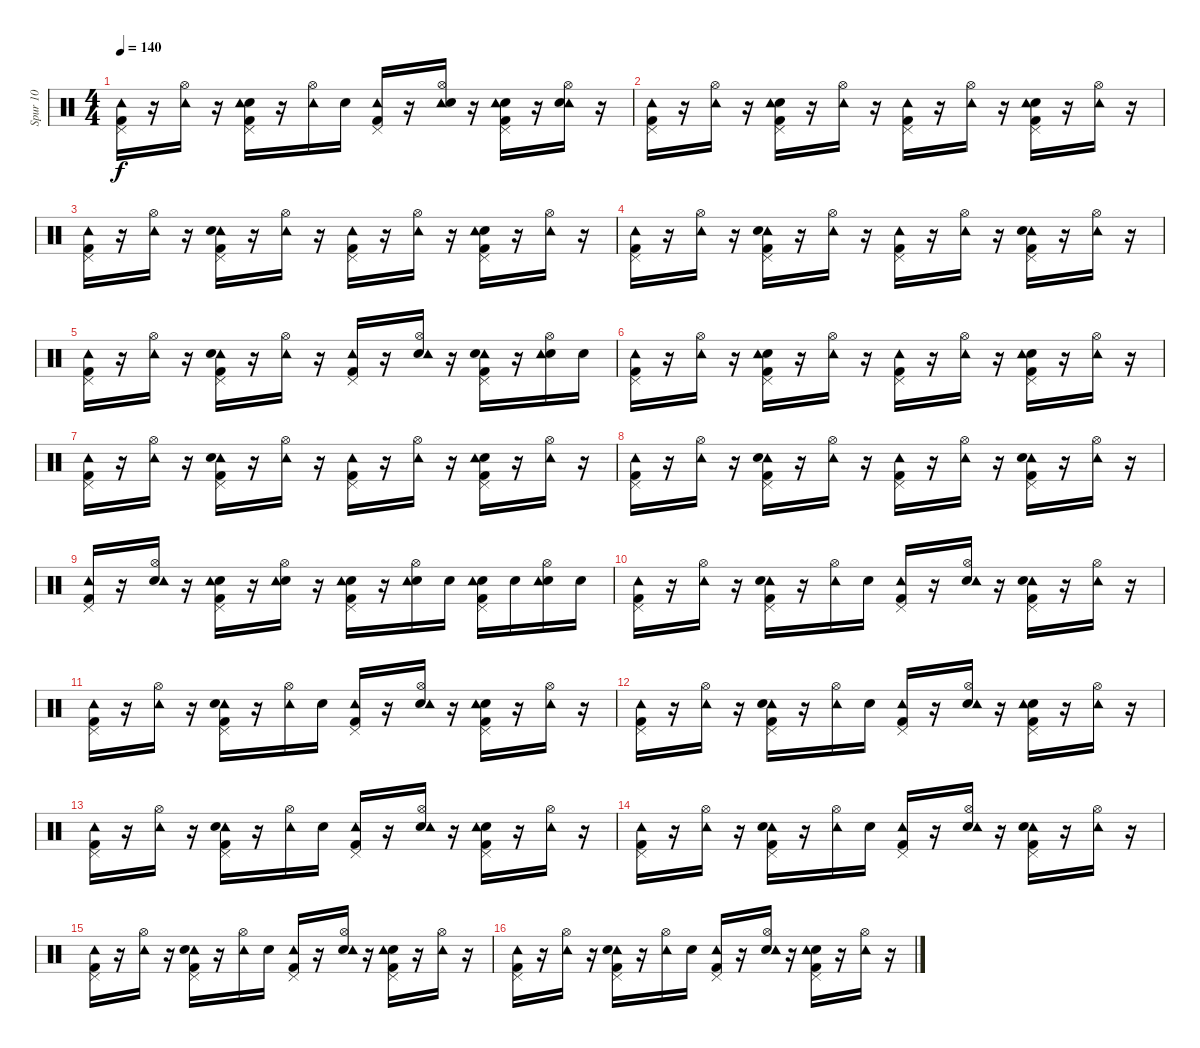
\track ("Spur 10" "Spur 10") {instrument percussion}
\staff {score}
\articulation defaults
\ts (4 4)
\tempo 140
\clef neutral
\ks c
("Tambourine (hit)" "Kick (hit) 2" "Pedal Hi-Hat (hit)").16{dy f} r.16 ("Tambourine (hit)" "Hi-Hat (open)").16 r.16 ("Pedal Hi-Hat (hit)" "Kick (hit) 2" "Snare (hit) 2" "Tambourine (hit)").16 r.16 ("Tambourine (hit)" "Hi-Hat (open)").16 "Snare (hit) 2".16 ("Pedal Hi-Hat (hit)" "Kick (hit) 2" "Tambourine (hit)").16 r.16 ("Tambourine (hit)" "Hi-Hat (open)" "Snare (hit) 2").16 r.16 ("Snare (hit) 2" "Kick (hit) 2" "Pedal Hi-Hat (hit)" "Tambourine (hit)").16 r.16 ("Hi-Hat (open)" "Tambourine (hit)" "Snare (hit) 2").16 r.16 |
("Tambourine (hit)" "Pedal Hi-Hat (hit)" "Kick (hit) 2").16 r.16 ("Tambourine (hit)" "Hi-Hat (open)").16 r.16 ("Kick (hit) 2" "Pedal Hi-Hat (hit)" "Snare (hit) 2" "Tambourine (hit)").16 r.16 ("Hi-Hat (open)" "Tambourine (hit)").16 r.16 ("Kick (hit) 2" "Pedal Hi-Hat (hit)" "Tambourine (hit)").16 r.16 ("Tambourine (hit)" "Hi-Hat (open)").16 r.16 ("Kick (hit) 2" "Snare (hit) 2" "Tambourine (hit)" "Pedal Hi-Hat (hit)").16 r.16 ("Hi-Hat (open)" "Tambourine (hit)").16 r.16 |
("Tambourine (hit)" "Kick (hit) 2" "Pedal Hi-Hat (hit)").16 r.16 ("Hi-Hat (open)" "Tambourine (hit)").16 r.16 ("Kick (hit) 2" "Tambourine (hit)" "Pedal Hi-Hat (hit)" "Snare (hit) 2").16 r.16 ("Tambourine (hit)" "Hi-Hat (open)").16 r.16 ("Pedal Hi-Hat (hit)" "Tambourine (hit)" "Kick (hit) 2").16 r.16 ("Hi-Hat (open)" "Tambourine (hit)").16 r.16 ("Kick (hit) 2" "Pedal Hi-Hat (hit)" "Snare (hit) 2" "Tambourine (hit)").16 r.16 ("Hi-Hat (open)" "Tambourine (hit)").16 r.16 |
("Tambourine (hit)" "Pedal Hi-Hat (hit)" "Kick (hit) 2").16 r.16 ("Hi-Hat (open)" "Tambourine (hit)").16 r.16 ("Kick (hit) 2" "Tambourine (hit)" "Pedal Hi-Hat (hit)" "Snare (hit) 2").16 r.16 ("Hi-Hat (open)" "Tambourine (hit)").16 r.16 ("Tambourine (hit)" "Kick (hit) 2" "Pedal Hi-Hat (hit)").16 r.16 ("Tambourine (hit)" "Hi-Hat (open)").16 r.16 ("Kick (hit) 2" "Pedal Hi-Hat (hit)" "Tambourine (hit)" "Snare (hit) 2").16 r.16 ("Hi-Hat (open)" "Tambourine (hit)").16 r.16 |
("Pedal Hi-Hat (hit)" "Kick (hit) 2" "Tambourine (hit)").16 r.16 ("Tambourine (hit)" "Hi-Hat (open)").16 r.16 ("Kick (hit) 2" "Pedal Hi-Hat (hit)" "Tambourine (hit)" "Snare (hit) 2").16 r.16 ("Hi-Hat (open)" "Tambourine (hit)").16 r.16 ("Kick (hit) 2" "Pedal Hi-Hat (hit)" "Tambourine (hit)").16 r.16 ("Snare (hit) 2" "Hi-Hat (open)" "Tambourine (hit)").16 r.16 ("Kick (hit) 2" "Pedal Hi-Hat (hit)" "Tambourine (hit)" "Snare (hit) 2").16 r.16 ("Hi-Hat (open)" "Snare (hit) 2" "Tambourine (hit)").16 "Snare (hit) 2".16 |
("Kick (hit) 2" "Tambourine (hit)" "Pedal Hi-Hat (hit)").16 r.16 ("Tambourine (hit)" "Hi-Hat (open)").16 r.16 ("Kick (hit) 2" "Pedal Hi-Hat (hit)" "Snare (hit) 2" "Tambourine (hit)").16 r.16 ("Hi-Hat (open)" "Tambourine (hit)").16 r.16 ("Kick (hit) 2" "Pedal Hi-Hat (hit)" "Tambourine (hit)").16 r.16 ("Tambourine (hit)" "Hi-Hat (open)").16 r.16 ("Kick (hit) 2" "Snare (hit) 2" "Tambourine (hit)" "Pedal Hi-Hat (hit)").16 r.16 ("Hi-Hat (open)" "Tambourine (hit)").16 r.16 |
("Tambourine (hit)" "Kick (hit) 2" "Pedal Hi-Hat (hit)").16 r.16 ("Hi-Hat (open)" "Tambourine (hit)").16 r.16 ("Kick (hit) 2" "Tambourine (hit)" "Pedal Hi-Hat (hit)" "Snare (hit) 2").16 r.16 ("Tambourine (hit)" "Hi-Hat (open)").16 r.16 ("Pedal Hi-Hat (hit)" "Tambourine (hit)" "Kick (hit) 2").16 r.16 ("Hi-Hat (open)" "Tambourine (hit)").16 r.16 ("Kick (hit) 2" "Pedal Hi-Hat (hit)" "Snare (hit) 2" "Tambourine (hit)").16 r.16 ("Hi-Hat (open)" "Tambourine (hit)").16 r.16 |
("Tambourine (hit)" "Pedal Hi-Hat (hit)" "Kick (hit) 2").16 r.16 ("Hi-Hat (open)" "Tambourine (hit)").16 r.16 ("Kick (hit) 2" "Tambourine (hit)" "Pedal Hi-Hat (hit)" "Snare (hit) 2").16 r.16 ("Hi-Hat (open)" "Tambourine (hit)").16 r.16 ("Tambourine (hit)" "Kick (hit) 2" "Pedal Hi-Hat (hit)").16 r.16 ("Tambourine (hit)" "Hi-Hat (open)").16 r.16 ("Kick (hit) 2" "Pedal Hi-Hat (hit)" "Tambourine (hit)" "Snare (hit) 2").16 r.16 ("Hi-Hat (open)" "Tambourine (hit)").16 r.16 |
("Pedal Hi-Hat (hit)" "Kick (hit) 2" "Tambourine (hit)").16 r.16 ("Snare (hit) 2" "Tambourine (hit)" "Hi-Hat (open)").16 r.16 ("Snare (hit) 2" "Kick (hit) 2" "Pedal Hi-Hat (hit)" "Tambourine (hit)").16 r.16 ("Snare (hit) 2" "Hi-Hat (open)" "Tambourine (hit)").16 r.16 ("Snare (hit) 2" "Kick (hit) 2" "Pedal Hi-Hat (hit)" "Tambourine (hit)").16 r.16 ("Snare (hit) 2" "Hi-Hat (open)" "Tambourine (hit)").16 "Snare (hit) 2".16 ("Snare (hit) 2" "Kick (hit) 2" "Pedal Hi-Hat (hit)" "Tambourine (hit)").16 "Snare (hit) 2".16 ("Snare (hit) 2" "Hi-Hat (open)" "Tambourine (hit)").16 "Snare (hit) 2".16 |
("Tambourine (hit)" "Kick (hit) 2" "Pedal Hi-Hat (hit)").16 r.16 ("Tambourine (hit)" "Hi-Hat (open)").16 r.16 ("Kick (hit) 2" "Tambourine (hit)" "Pedal Hi-Hat (hit)" "Snare (hit) 2").16 r.16 ("Tambourine (hit)" "Hi-Hat (open)").16 "Snare (hit) 2".16 ("Tambourine (hit)" "Kick (hit) 2" "Pedal Hi-Hat (hit)").16 r.16 ("Snare (hit) 2" "Tambourine (hit)" "Hi-Hat (open)").16 r.16 ("Pedal Hi-Hat (hit)" "Kick (hit) 2" "Tambourine (hit)" "Snare (hit) 2").16 r.16 ("Tambourine (hit)" "Hi-Hat (open)").16 r.16 |
("Tambourine (hit)" "Pedal Hi-Hat (hit)" "Kick (hit) 2").16 r.16 ("Tambourine (hit)" "Hi-Hat (open)").16 r.16 ("Kick (hit) 2" "Tambourine (hit)" "Pedal Hi-Hat (hit)" "Snare (hit) 2").16 r.16 ("Hi-Hat (open)" "Tambourine (hit)").16 "Snare (hit) 2".16 ("Pedal Hi-Hat (hit)" "Tambourine (hit)" "Kick (hit) 2").16 r.16 ("Snare (hit) 2" "Hi-Hat (open)" "Tambourine (hit)").16 r.16 ("Snare (hit) 2" "Tambourine (hit)" "Kick (hit) 2" "Pedal Hi-Hat (hit)").16 r.16 ("Tambourine (hit)" "Hi-Hat (open)").16 r.16 |
("Tambourine (hit)" "Kick (hit) 2" "Pedal Hi-Hat (hit)").16 r.16 ("Tambourine (hit)" "Hi-Hat (open)").16 r.16 ("Tambourine (hit)" "Kick (hit) 2" "Pedal Hi-Hat (hit)" "Snare (hit) 2").16 r.16 ("Tambourine (hit)" "Hi-Hat (open)").16 "Snare (hit) 2".16 ("Pedal Hi-Hat (hit)" "Kick (hit) 2" "Tambourine (hit)").16 r.16 ("Snare (hit) 2" "Tambourine (hit)" "Hi-Hat (open)").16 r.16 ("Snare (hit) 2" "Kick (hit) 2" "Pedal Hi-Hat (hit)" "Tambourine (hit)").16 r.16 ("Tambourine (hit)" "Hi-Hat (open)").16 r.16 |
("Tambourine (hit)" "Kick (hit) 2" "Pedal Hi-Hat (hit)").16 r.16 ("Tambourine (hit)" "Hi-Hat (open)").16 r.16 ("Pedal Hi-Hat (hit)" "Kick (hit) 2" "Tambourine (hit)" "Snare (hit) 2").16 r.16 ("Tambourine (hit)" "Hi-Hat (open)").16 "Snare (hit) 2".16 ("Pedal Hi-Hat (hit)" "Kick (hit) 2" "Tambourine (hit)").16 r.16 ("Snare (hit) 2" "Tambourine (hit)" "Hi-Hat (open)").16 r.16 ("Snare (hit) 2" "Kick (hit) 2" "Pedal Hi-Hat (hit)" "Tambourine (hit)").16 r.16 ("Hi-Hat (open)" "Tambourine (hit)").16 r.16 |
("Tambourine (hit)" "Kick (hit) 2" "Pedal Hi-Hat (hit)").16 r.16 ("Tambourine (hit)" "Hi-Hat (open)").16 r.16 ("Kick (hit) 2" "Tambourine (hit)" "Pedal Hi-Hat (hit)" "Snare (hit) 2").16 r.16 ("Tambourine (hit)" "Hi-Hat (open)").16 "Snare (hit) 2".16 ("Tambourine (hit)" "Kick (hit) 2" "Pedal Hi-Hat (hit)").16 r.16 ("Snare (hit) 2" "Tambourine (hit)" "Hi-Hat (open)").16 r.16 ("Pedal Hi-Hat (hit)" "Kick (hit) 2" "Tambourine (hit)" "Snare (hit) 2").16 r.16 ("Tambourine (hit)" "Hi-Hat (open)").16 r.16 |
("Tambourine (hit)" "Pedal Hi-Hat (hit)" "Kick (hit) 2").16 r.16 ("Tambourine (hit)" "Hi-Hat (open)").16 r.16 ("Kick (hit) 2" "Tambourine (hit)" "Pedal Hi-Hat (hit)" "Snare (hit) 2").16 r.16 ("Hi-Hat (open)" "Tambourine (hit)").16 "Snare (hit) 2".16 ("Pedal Hi-Hat (hit)" "Tambourine (hit)" "Kick (hit) 2").16 r.16 ("Snare (hit) 2" "Hi-Hat (open)" "Tambourine (hit)").16 r.16 ("Snare (hit) 2" "Tambourine (hit)" "Kick (hit) 2" "Pedal Hi-Hat (hit)").16 r.16 ("Tambourine (hit)" "Hi-Hat (open)").16 r.16 |
("Tambourine (hit)" "Kick (hit) 2" "Pedal Hi-Hat (hit)").16 r.16 ("Tambourine (hit)" "Hi-Hat (open)").16 r.16 ("Tambourine (hit)" "Kick (hit) 2" "Pedal Hi-Hat (hit)" "Snare (hit) 2").16 r.16 ("Tambourine (hit)" "Hi-Hat (open)").16 "Snare (hit) 2".16 ("Pedal Hi-Hat (hit)" "Kick (hit) 2" "Tambourine (hit)").16 r.16 ("Snare (hit) 2" "Tambourine (hit)" "Hi-Hat (open)").16 r.16 ("Snare (hit) 2" "Kick (hit) 2" "Pedal Hi-Hat (hit)" "Tambourine (hit)").16 r.16 ("Tambourine (hit)" "Hi-Hat (open)").16 r.16
